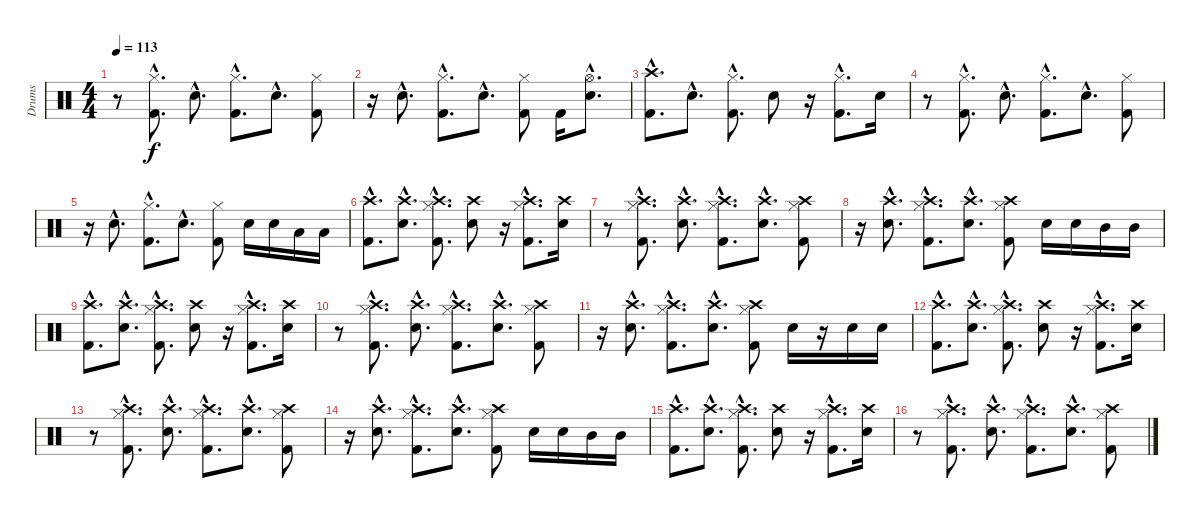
\track ("Drums" "Drums") {instrument percussion}
\staff {score}
\articulation defaults
\ts (4 4)
\tempo 113
\clef neutral
\ks c
r.8{dy f} ("Hi-Hat (closed)"{hac} "Kick (hit) 2"{hac}).8{d} "Electric Snare (hit)"{hac}.8{d} ("Hi-Hat (closed)"{hac} "Kick (hit) 2"{hac}).8{d} "Electric Snare (hit)"{hac}.8{d} ("Hi-Hat (closed)" "Kick (hit) 2").8 |
r.16 "Electric Snare (hit)"{hac}.8{d} ("Hi-Hat (closed)"{hac} "Kick (hit) 2"{hac}).8{d} "Electric Snare (hit)"{hac}.8{d} ("Hi-Hat (closed)" "Kick (hit) 2").8 "Kick (hit) 2".16 ("Hi-Hat (open)"{hac} "Electric Snare (hit)"{hac}).8{d} |
("Crash high (hit)"{hac} "Kick (hit) 2"{hac}).8{d} "Electric Snare (hit)"{hac}.8{d} ("Hi-Hat (closed)"{hac} "Kick (hit) 2"{hac}).8{d} "Electric Snare (hit)".8 r.16 ("Hi-Hat (closed)"{hac} "Kick (hit) 2"{hac}).8{d} "Electric Snare (hit)".16 |
r.8 ("Hi-Hat (closed)"{hac} "Kick (hit) 2"{hac}).8{d} "Electric Snare (hit)"{hac}.8{d} ("Hi-Hat (closed)"{hac} "Kick (hit) 2"{hac}).8{d} "Electric Snare (hit)"{hac}.8{d} ("Hi-Hat (closed)" "Kick (hit) 2").8 |
r.16 "Electric Snare (hit)"{hac}.8{d} ("Hi-Hat (closed)"{hac} "Kick (hit) 2"{hac}).8{d} "Electric Snare (hit)"{hac}.8{d} ("Hi-Hat (closed)" "Kick (hit) 2").8 "Electric Snare (hit)".16 "Electric Snare (hit)".16 "Low Tom (hit)".16 "Low Tom (hit)".16 |
("Crash high (hit)"{hac} "Kick (hit) 2"{hac}).8{d} ("Crash high (hit)"{hac} "Electric Snare (hit)"{hac}).8{d} ("Crash high (hit)"{hac} "Hi-Hat (closed)"{hac} "Kick (hit) 2"{hac}).8{d} ("Crash high (hit)" "Electric Snare (hit)").8 r.16 ("Crash high (hit)"{hac} "Hi-Hat (closed)"{hac} "Kick (hit) 2"{hac}).8{d} ("Crash high (hit)" "Electric Snare (hit)").16 |
r.8 ("Crash high (hit)"{hac} "Hi-Hat (closed)"{hac} "Kick (hit) 2"{hac}).8{d} ("Crash high (hit)"{hac} "Electric Snare (hit)"{hac}).8{d} ("Crash high (hit)"{hac} "Hi-Hat (closed)"{hac} "Kick (hit) 2"{hac}).8{d} ("Crash high (hit)"{hac} "Electric Snare (hit)"{hac}).8{d} ("Crash high (hit)" "Hi-Hat (closed)" "Kick (hit) 2").8 |
r.16 ("Crash high (hit)"{hac} "Electric Snare (hit)"{hac}).8{d} ("Crash high (hit)"{hac} "Hi-Hat (closed)"{hac} "Kick (hit) 2"{hac}).8{d} ("Crash high (hit)"{hac} "Electric Snare (hit)"{hac}).8{d} ("Crash high (hit)" "Hi-Hat (closed)" "Kick (hit) 2").8 "Electric Snare (hit)".16 "Electric Snare (hit)".16 "Mid Tom (hit)".16 "Mid Tom (hit)".16 |
("Crash high (hit)"{hac} "Kick (hit) 2"{hac}).8{d} ("Crash high (hit)"{hac} "Electric Snare (hit)"{hac}).8{d} ("Crash high (hit)"{hac} "Hi-Hat (closed)"{hac} "Kick (hit) 2"{hac}).8{d} ("Crash high (hit)" "Electric Snare (hit)").8 r.16 ("Crash high (hit)"{hac} "Hi-Hat (closed)"{hac} "Kick (hit) 2"{hac}).8{d} ("Crash high (hit)" "Electric Snare (hit)").16 |
r.8 ("Crash high (hit)"{hac} "Hi-Hat (closed)"{hac} "Kick (hit) 2"{hac}).8{d} ("Crash high (hit)"{hac} "Electric Snare (hit)"{hac}).8{d} ("Crash high (hit)"{hac} "Hi-Hat (closed)"{hac} "Kick (hit) 2"{hac}).8{d} ("Crash high (hit)"{hac} "Electric Snare (hit)"{hac}).8{d} ("Crash high (hit)" "Hi-Hat (closed)" "Kick (hit) 2").8 |
r.16 ("Crash high (hit)"{hac} "Electric Snare (hit)"{hac}).8{d} ("Crash high (hit)"{hac} "Hi-Hat (closed)"{hac} "Kick (hit) 2"{hac}).8{d} ("Crash high (hit)"{hac} "Electric Snare (hit)"{hac}).8{d} ("Crash high (hit)" "Hi-Hat (closed)" "Kick (hit) 2").8 "Electric Snare (hit)".16 r.16 "Electric Snare (hit)".16 "Electric Snare (hit)".16 |
("Crash high (hit)"{hac} "Kick (hit) 2"{hac}).8{d} ("Crash high (hit)"{hac} "Electric Snare (hit)"{hac}).8{d} ("Crash high (hit)"{hac} "Hi-Hat (closed)"{hac} "Kick (hit) 2"{hac}).8{d} ("Crash high (hit)" "Electric Snare (hit)").8 r.16 ("Crash high (hit)"{hac} "Hi-Hat (closed)"{hac} "Kick (hit) 2"{hac}).8{d} ("Crash high (hit)" "Electric Snare (hit)").16 |
r.8 ("Crash high (hit)"{hac} "Hi-Hat (closed)"{hac} "Kick (hit) 2"{hac}).8{d} ("Crash high (hit)"{hac} "Electric Snare (hit)"{hac}).8{d} ("Crash high (hit)"{hac} "Hi-Hat (closed)"{hac} "Kick (hit) 2"{hac}).8{d} ("Crash high (hit)"{hac} "Electric Snare (hit)"{hac}).8{d} ("Crash high (hit)" "Hi-Hat (closed)" "Kick (hit) 2").8 |
r.16 ("Crash high (hit)"{hac} "Electric Snare (hit)"{hac}).8{d} ("Crash high (hit)"{hac} "Hi-Hat (closed)"{hac} "Kick (hit) 2"{hac}).8{d} ("Crash high (hit)"{hac} "Electric Snare (hit)"{hac}).8{d} ("Crash high (hit)" "Hi-Hat (closed)" "Kick (hit) 2").8 "Electric Snare (hit)".16 "Electric Snare (hit)".16 "Mid Tom (hit)".16 "Mid Tom (hit)".16 |
("Crash high (hit)"{hac} "Kick (hit) 2"{hac}).8{d} ("Crash high (hit)"{hac} "Electric Snare (hit)"{hac}).8{d} ("Crash high (hit)"{hac} "Hi-Hat (closed)"{hac} "Kick (hit) 2"{hac}).8{d} ("Crash high (hit)" "Electric Snare (hit)").8 r.16 ("Crash high (hit)"{hac} "Hi-Hat (closed)"{hac} "Kick (hit) 2"{hac}).8{d} ("Crash high (hit)" "Electric Snare (hit)").16 |
r.8 ("Crash high (hit)"{hac} "Hi-Hat (closed)"{hac} "Kick (hit) 2"{hac}).8{d} ("Crash high (hit)"{hac} "Electric Snare (hit)"{hac}).8{d} ("Crash high (hit)"{hac} "Hi-Hat (closed)"{hac} "Kick (hit) 2"{hac}).8{d} ("Crash high (hit)"{hac} "Electric Snare (hit)"{hac}).8{d} ("Crash high (hit)" "Hi-Hat (closed)" "Kick (hit) 2").8
